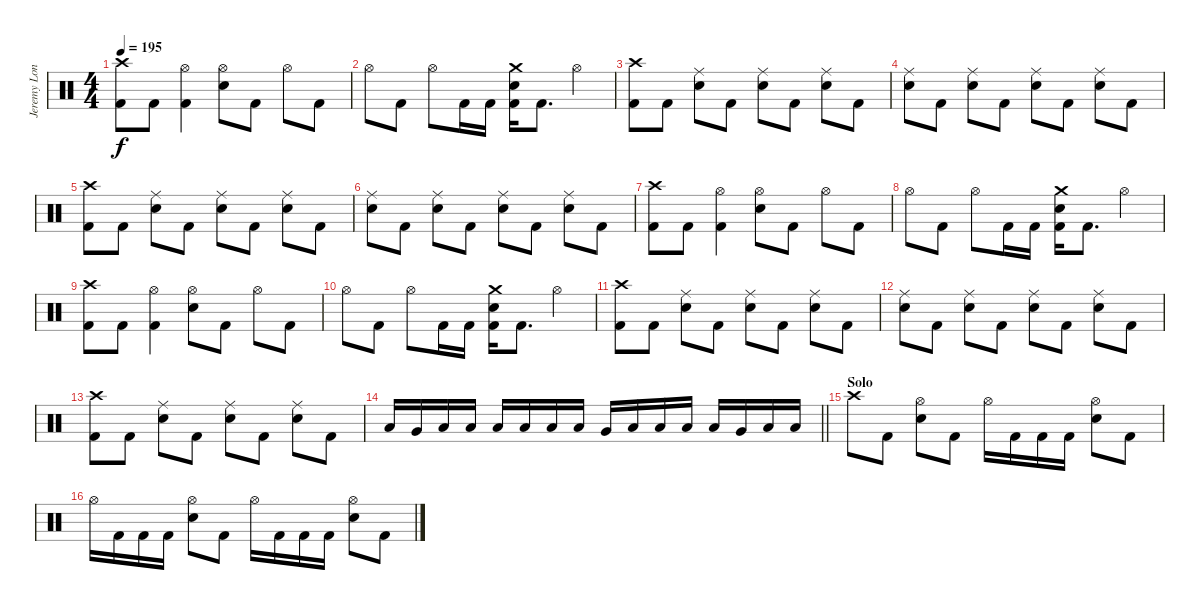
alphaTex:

\track ("Jeremy London" "Jeremy Lon") {instrument percussion}
\staff {score}
\articulation defaults
\ts (4 4)
\tempo 195
\clef neutral
\ks c
("Crash high (hit)" "Kick (hit) 2").8{dy f} "Kick (hit) 2".8 ("Hi-Hat (open)" "Kick (hit) 2").4 ("Hi-Hat (open)" "Electric Snare (hit)").8 "Kick (hit) 2".8 "Hi-Hat (open)".8 "Kick (hit) 2".8 |
"Hi-Hat (open)".8 "Kick (hit) 2".8 "Hi-Hat (open)".8 "Kick (hit) 2".16 "Kick (hit) 2".16 ("Crash medium (hit)" "Electric Snare (hit)" "Kick (hit) 2").16 "Kick (hit) 2".8{d} "Hi-Hat (open)".4 |
("Crash high (hit)" "Kick (hit) 2").8 "Kick (hit) 2".8 ("Ride (middle)" "Electric Snare (hit)").8 "Kick (hit) 2".8 ("Ride (middle)" "Electric Snare (hit)").8 "Kick (hit) 2".8 ("Ride (middle)" "Electric Snare (hit)").8 "Kick (hit) 2".8 |
("Ride (middle)" "Electric Snare (hit)").8 "Kick (hit) 2".8 ("Ride (middle)" "Electric Snare (hit)").8 "Kick (hit) 2".8 ("Ride (middle)" "Electric Snare (hit)").8 "Kick (hit) 2".8 ("Ride (middle)" "Electric Snare (hit)").8 "Kick (hit) 2".8 |
("Crash high (hit)" "Kick (hit) 2").8 "Kick (hit) 2".8 ("Ride (middle)" "Electric Snare (hit)").8 "Kick (hit) 2".8 ("Ride (middle)" "Electric Snare (hit)").8 "Kick (hit) 2".8 ("Ride (middle)" "Electric Snare (hit)").8 "Kick (hit) 2".8 |
("Ride (middle)" "Electric Snare (hit)").8 "Kick (hit) 2".8 ("Ride (middle)" "Electric Snare (hit)").8 "Kick (hit) 2".8 ("Ride (middle)" "Electric Snare (hit)").8 "Kick (hit) 2".8 ("Ride (middle)" "Electric Snare (hit)").8 "Kick (hit) 2".8 |
("Crash high (hit)" "Kick (hit) 2").8 "Kick (hit) 2".8 ("Hi-Hat (open)" "Kick (hit) 2").4 ("Hi-Hat (open)" "Electric Snare (hit)").8 "Kick (hit) 2".8 "Hi-Hat (open)".8 "Kick (hit) 2".8 |
"Hi-Hat (open)".8 "Kick (hit) 2".8 "Hi-Hat (open)".8 "Kick (hit) 2".16 "Kick (hit) 2".16 ("Crash medium (hit)" "Electric Snare (hit)" "Kick (hit) 2").16 "Kick (hit) 2".8{d} "Hi-Hat (open)".4 |
("Crash high (hit)" "Kick (hit) 2").8 "Kick (hit) 2".8 ("Hi-Hat (open)" "Kick (hit) 2").4 ("Hi-Hat (open)" "Electric Snare (hit)").8 "Kick (hit) 2".8 "Hi-Hat (open)".8 "Kick (hit) 2".8 |
"Hi-Hat (open)".8 "Kick (hit) 2".8 "Hi-Hat (open)".8 "Kick (hit) 2".16 "Kick (hit) 2".16 ("Crash medium (hit)" "Electric Snare (hit)" "Kick (hit) 2").16 "Kick (hit) 2".8{d} "Hi-Hat (open)".4 |
("Crash high (hit)" "Kick (hit) 2").8 "Kick (hit) 2".8 ("Ride (middle)" "Electric Snare (hit)").8 "Kick (hit) 2".8 ("Ride (middle)" "Electric Snare (hit)").8 "Kick (hit) 2".8 ("Ride (middle)" "Electric Snare (hit)").8 "Kick (hit) 2".8 |
("Ride (middle)" "Electric Snare (hit)").8 "Kick (hit) 2".8 ("Ride (middle)" "Electric Snare (hit)").8 "Kick (hit) 2".8 ("Ride (middle)" "Electric Snare (hit)").8 "Kick (hit) 2".8 ("Ride (middle)" "Electric Snare (hit)").8 "Kick (hit) 2".8 |
("Crash high (hit)" "Kick (hit) 2").8 "Kick (hit) 2".8 ("Ride (middle)" "Electric Snare (hit)").8 "Kick (hit) 2".8 ("Ride (middle)" "Electric Snare (hit)").8 "Kick (hit) 2".8 ("Ride (middle)" "Electric Snare (hit)").8 "Kick (hit) 2".8 |
\barLineRight lightlight "Low Tom (hit)".16 "Very Low Tom (hit)".16 "Low Floor Tom (hit)".16 "Low Floor Tom (hit)".16 "Low Floor Tom (hit)".16 "Low Floor Tom (hit)".16 "Low Floor Tom (hit)".16 "Low Tom (hit)".16 "Very Low Tom (hit)".16 "Low Floor Tom (hit)".16 "Low Floor Tom (hit)".16 "Low Floor Tom (hit)".16 "Low Tom (hit)".16 "Very Low Tom (hit)".16 "Low Floor Tom (hit)".16 "Low Floor Tom (hit)".16
|
\section ("" "Solo")
"Crash high (hit)".8 "Kick (hit) 2".8 ("Hi-Hat (open)" "Electric Snare (hit)").8 "Kick (hit) 2".8 "Hi-Hat (open)".16 "Kick (hit) 2".16 "Kick (hit) 2".16 "Kick (hit) 2".16 ("Hi-Hat (open)" "Electric Snare (hit)").8 "Kick (hit) 2".8 |
"Hi-Hat (open)".16 "Kick (hit) 2".16 "Kick (hit) 2".16 "Kick (hit) 2".16 ("Hi-Hat (open)" "Electric Snare (hit)").8 "Kick (hit) 2".8 "Hi-Hat (open)".16 "Kick (hit) 2".16 "Kick (hit) 2".16 "Kick (hit) 2".16 ("Hi-Hat (open)" "Electric Snare (hit)").8 "Kick (hit) 2".8
